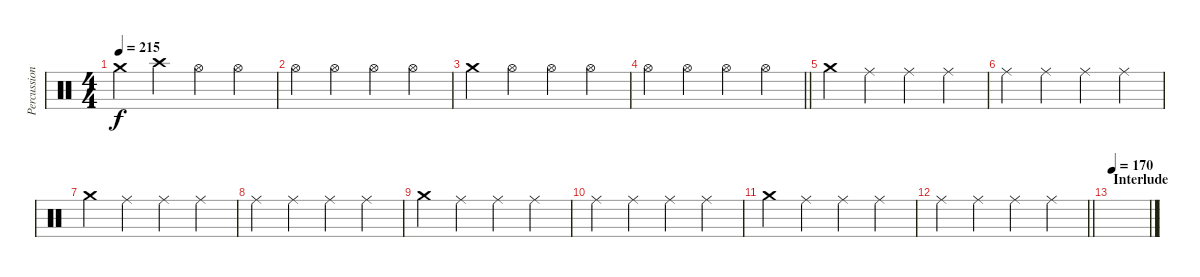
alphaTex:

\track ("Percussion" "Percussion") {instrument percussion}
\staff {score}
\articulation defaults
\ts (4 4)
\tempo 215
\clef neutral
\ks c "Crash medium (hit)".4{dy f} "Crash high (hit)".4 "Hi-Hat (open)".4 "Hi-Hat (open)".4
|
"Hi-Hat (open)".4 "Hi-Hat (open)".4 "Hi-Hat (open)".4 "Hi-Hat (open)".4 |
"Crash medium (hit)".4 "Hi-Hat (open)".4 "Hi-Hat (open)".4 "Hi-Hat (open)".4 |
\barLineRight lightlight "Hi-Hat (open)".4 "Hi-Hat (open)".4 "Hi-Hat (open)".4 "Hi-Hat (open)".4
|
"Crash medium (hit)".4 "Ride (middle)".4 "Ride (middle)".4 "Ride (middle)".4 |
"Ride (middle)".4 "Ride (middle)".4 "Ride (middle)".4 "Ride (middle)".4 |
"Crash medium (hit)".4 "Ride (middle)".4 "Ride (middle)".4 "Ride (middle)".4 |
"Ride (middle)".4 "Ride (middle)".4 "Ride (middle)".4 "Ride (middle)".4 |
"Crash medium (hit)".4 "Ride (middle)".4 "Ride (middle)".4 "Ride (middle)".4 |
"Ride (middle)".4 "Ride (middle)".4 "Ride (middle)".4 "Ride (middle)".4 |
"Crash medium (hit)".4 "Ride (middle)".4 "Ride (middle)".4 "Ride (middle)".4 |
\barLineRight lightlight "Ride (middle)".4 "Ride (middle)".4 "Ride (middle)".4 "Ride (middle)".4
|
\section ("" "Interlude")
\tempo 170
